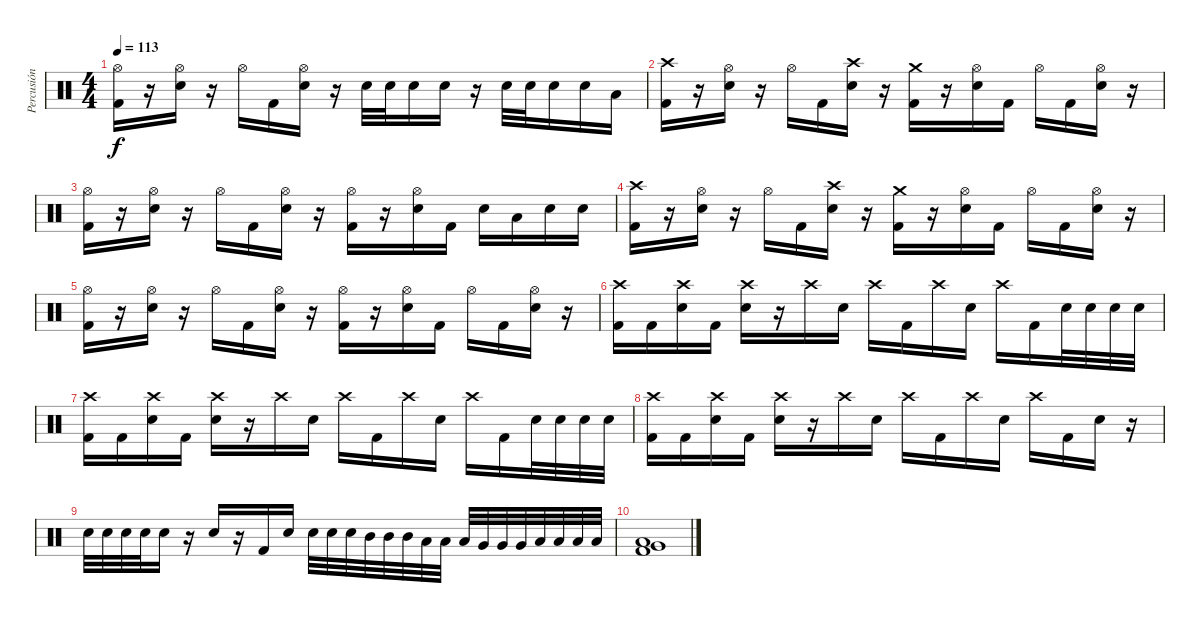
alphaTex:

\track ("Percusión" "Percusión") {instrument percussion}
\staff {score}
\articulation defaults
\ts (4 4)
\tempo 113
\clef neutral
\ks c
("Hi-Hat (open)" "Kick (hit) 2").16{dy f} r.16 ("Hi-Hat (open)" "Electric Snare (hit)").16 r.16 "Hi-Hat (open)".16 "Kick (hit) 2".16 ("Hi-Hat (open)" "Electric Snare (hit)").16 r.16 "Electric Snare (hit)".32 "Electric Snare (hit)".32 "Electric Snare (hit)".16 "Electric Snare (hit)".16 r.16 "Electric Snare (hit)".32 "Electric Snare (hit)".32 "Electric Snare (hit)".16 "Electric Snare (hit)".16 "Low Tom (hit)".16 |
("Crash high (hit)" "Kick (hit) 2").16 r.16 ("Hi-Hat (open)" "Electric Snare (hit)").16 r.16 "Hi-Hat (open)".16 "Kick (hit) 2".16 ("Crash high (hit)" "Electric Snare (hit)").16 r.16 ("Crash medium (hit)" "Kick (hit) 2").16 r.16 ("Hi-Hat (open)" "Electric Snare (hit)").16 "Kick (hit) 2".16 "Hi-Hat (open)".16 "Kick (hit) 2".16 ("Hi-Hat (open)" "Electric Snare (hit)").16 r.16 |
("Hi-Hat (open)" "Kick (hit) 2").16 r.16 ("Hi-Hat (open)" "Electric Snare (hit)").16 r.16 "Hi-Hat (open)".16 "Kick (hit) 2".16 ("Hi-Hat (open)" "Electric Snare (hit)").16 r.16 ("Hi-Hat (open)" "Kick (hit) 2").16 r.16 ("Hi-Hat (open)" "Electric Snare (hit)").16 "Kick (hit) 2".16 "Electric Snare (hit)".16 "Low Tom (hit)".16 "Electric Snare (hit)".16 "Electric Snare (hit)".16 |
("Crash high (hit)" "Kick (hit) 2").16 r.16 ("Hi-Hat (open)" "Electric Snare (hit)").16 r.16 "Hi-Hat (open)".16 "Kick (hit) 2".16 ("Crash high (hit)" "Electric Snare (hit)").16 r.16 ("Crash medium (hit)" "Kick (hit) 2").16 r.16 ("Hi-Hat (open)" "Electric Snare (hit)").16 "Kick (hit) 2".16 "Hi-Hat (open)".16 "Kick (hit) 2".16 ("Hi-Hat (open)" "Electric Snare (hit)").16 r.16 |
("Hi-Hat (open)" "Kick (hit) 2").16 r.16 ("Hi-Hat (open)" "Electric Snare (hit)").16 r.16 "Hi-Hat (open)".16 "Kick (hit) 2".16 ("Hi-Hat (open)" "Electric Snare (hit)").16 r.16 ("Hi-Hat (open)" "Kick (hit) 2").16 r.16 ("Hi-Hat (open)" "Electric Snare (hit)").16 "Kick (hit) 2".16 "Hi-Hat (open)".16 "Kick (hit) 2".16 ("Hi-Hat (open)" "Electric Snare (hit)").16 r.16 |
("Crash high (hit)" "Kick (hit) 2").16 "Kick (hit) 2".16 ("Crash high (hit)" "Electric Snare (hit)").16 "Kick (hit) 2".16 ("Crash high (hit)" "Electric Snare (hit)").16 r.16 "Crash high (hit)".16 "Electric Snare (hit)".16 "Crash high (hit)".16 "Kick (hit) 2".16 "Crash high (hit)".16 "Electric Snare (hit)".16 "Crash high (hit)".16 "Kick (hit) 2".16 "Electric Snare (hit)".32 "Electric Snare (hit)".32 "Electric Snare (hit)".32 "Electric Snare (hit)".32 |
("Crash high (hit)" "Kick (hit) 2").16 "Kick (hit) 2".16 ("Crash high (hit)" "Electric Snare (hit)").16 "Kick (hit) 2".16 ("Crash high (hit)" "Electric Snare (hit)").16 r.16 "Crash high (hit)".16 "Electric Snare (hit)".16 "Crash high (hit)".16 "Kick (hit) 2".16 "Crash high (hit)".16 "Electric Snare (hit)".16 "Crash high (hit)".16 "Kick (hit) 2".16 "Electric Snare (hit)".32 "Electric Snare (hit)".32 "Electric Snare (hit)".32 "Electric Snare (hit)".32 |
("Crash high (hit)" "Kick (hit) 2").16 "Kick (hit) 2".16 ("Crash high (hit)" "Electric Snare (hit)").16 "Kick (hit) 2".16 ("Crash high (hit)" "Electric Snare (hit)").16 r.16 "Crash high (hit)".16 "Electric Snare (hit)".16 "Crash high (hit)".16 "Kick (hit) 2".16 "Crash high (hit)".16 "Electric Snare (hit)".16 "Crash high (hit)".16 "Kick (hit) 2".16 "Electric Snare (hit)".16 r.16 |
"Electric Snare (hit)".32 "Electric Snare (hit)".32 "Electric Snare (hit)".32 "Electric Snare (hit)".32 "Electric Snare (hit)".16 r.16 "Electric Snare (hit)".16 r.16 "Kick (hit) 2".16 "Electric Snare (hit)".16 "Electric Snare (hit)".32 "Electric Snare (hit)".32 "Electric Snare (hit)".32 "Mid Tom (hit)".32 "Mid Tom (hit)".32 "Mid Tom (hit)".32 "Low Tom (hit)".32 "Low Tom (hit)".32 "Low Tom (hit)".32 "Very Low Tom (hit)".32 "Very Low Tom (hit)".32 "Very Low Tom (hit)".32 "Low Floor Tom (hit)".32 "Low Floor Tom (hit)".32 "Low Floor Tom (hit)".32 "Low Floor Tom (hit)".32 |
("Low Tom (hit)" "Very Low Tom (hit)" "Kick (hit) 2").1
